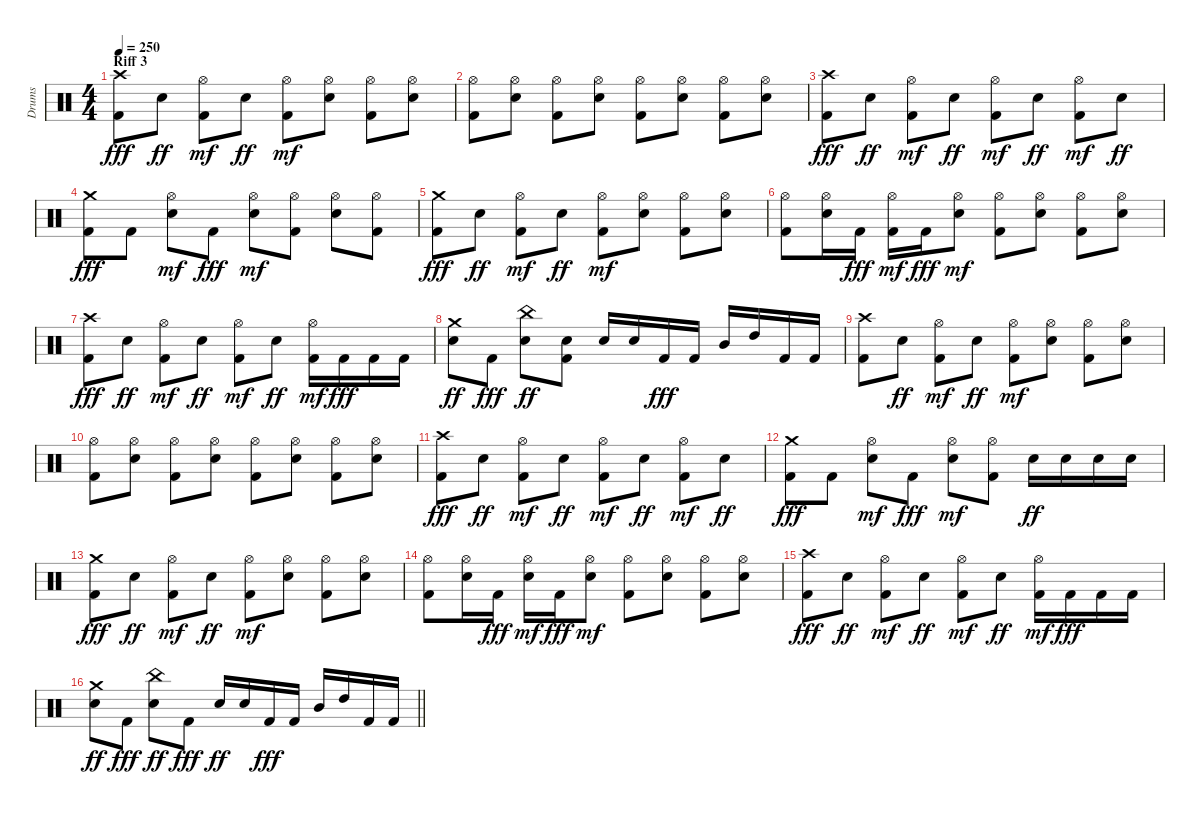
\track ("Drums" "Drums") {instrument percussion}
\staff {score}
\articulation defaults
\ts (4 4)
\section ("" "Riff 3")
\tempo 250
\clef neutral
\ks c
("Kick (hit) 2" "Crash high (hit)").8{dy fff} "Snare (hit) 2".8{dy ff} ("Kick (hit) 2" "Hi-Hat (open)").8{dy mf} "Snare (hit) 2".8{dy ff} ("Kick (hit) 2" "Hi-Hat (open)").8{dy mf} ("Snare (hit) 2" "Hi-Hat (open)").8 ("Kick (hit) 2" "Hi-Hat (open)").8 ("Snare (hit) 2" "Hi-Hat (open)").8 |
("Kick (hit) 2" "Hi-Hat (open)").8 ("Snare (hit) 2" "Hi-Hat (open)").8 ("Kick (hit) 2" "Hi-Hat (open)").8 ("Snare (hit) 2" "Hi-Hat (open)").8 ("Kick (hit) 2" "Hi-Hat (open)").8 ("Snare (hit) 2" "Hi-Hat (open)").8 ("Kick (hit) 2" "Hi-Hat (open)").8 ("Snare (hit) 2" "Hi-Hat (open)").8 |
("Kick (hit) 2" "Crash high (hit)").8{dy fff} "Snare (hit) 2".8{dy ff} ("Kick (hit) 2" "Hi-Hat (open)").8{dy mf} "Snare (hit) 2".8{dy ff} ("Kick (hit) 2" "Hi-Hat (open)").8{dy mf} "Snare (hit) 2".8{dy ff} ("Kick (hit) 2" "Hi-Hat (open)").8{dy mf} "Snare (hit) 2".8{dy ff} |
("Kick (hit) 2" "Crash medium (hit)").8{dy fff} "Kick (hit) 2".8 ("Snare (hit) 2" "Hi-Hat (open)").8{dy mf} "Kick (hit) 2".8{dy fff} ("Snare (hit) 2" "Hi-Hat (open)").8{dy mf} ("Kick (hit) 2" "Hi-Hat (open)").8 ("Snare (hit) 2" "Hi-Hat (open)").8 ("Kick (hit) 2" "Hi-Hat (open)").8 |
("Kick (hit) 2" "Crash medium (hit)").8{dy fff} "Snare (hit) 2".8{dy ff} ("Kick (hit) 2" "Hi-Hat (open)").8{dy mf} "Snare (hit) 2".8{dy ff} ("Kick (hit) 2" "Hi-Hat (open)").8{dy mf} ("Snare (hit) 2" "Hi-Hat (open)").8 ("Kick (hit) 2" "Hi-Hat (open)").8 ("Snare (hit) 2" "Hi-Hat (open)").8 |
("Kick (hit) 2" "Hi-Hat (open)").8 ("Snare (hit) 2" "Hi-Hat (open)").16 "Kick (hit) 2".16{dy fff} ("Kick (hit) 2" "Hi-Hat (open)").16{dy mf} "Kick (hit) 2".16{dy fff} ("Snare (hit) 2" "Hi-Hat (open)").8{dy mf} ("Kick (hit) 2" "Hi-Hat (open)").8 ("Snare (hit) 2" "Hi-Hat (open)").8 ("Kick (hit) 2" "Hi-Hat (open)").8 ("Snare (hit) 2" "Hi-Hat (open)").8 |
("Kick (hit) 2" "Crash high (hit)").8{dy fff} "Snare (hit) 2".8{dy ff} ("Kick (hit) 2" "Hi-Hat (open)").8{dy mf} "Snare (hit) 2".8{dy ff} ("Kick (hit) 2" "Hi-Hat (open)").8{dy mf} "Snare (hit) 2".8{dy ff} ("Kick (hit) 2" "Hi-Hat (open)").16{dy mf} "Kick (hit) 2".16{dy fff} "Kick (hit) 2".16 "Kick (hit) 2".16 |
("Snare (hit) 2" "Crash medium (hit)").8{dy ff} "Kick (hit) 2".8{dy fff} ("Snare (hit) 2" "China (hit)").8{dy ff} ("Kick (hit) 2" "Snare (hit) 2").8 "Snare (hit) 2".16 "Snare (hit) 2".16 "Kick (hit) 2".16{dy fff} "Kick (hit) 2".16 "Mid Tom (hit)".16 "High Tom (hit)".16 "Kick (hit) 2".16 "Kick (hit) 2".16 |
("Kick (hit) 2" "Crash high (hit)").8 "Snare (hit) 2".8{dy ff} ("Kick (hit) 2" "Hi-Hat (open)").8{dy mf} "Snare (hit) 2".8{dy ff} ("Kick (hit) 2" "Hi-Hat (open)").8{dy mf} ("Snare (hit) 2" "Hi-Hat (open)").8 ("Kick (hit) 2" "Hi-Hat (open)").8 ("Snare (hit) 2" "Hi-Hat (open)").8 |
("Kick (hit) 2" "Hi-Hat (open)").8 ("Snare (hit) 2" "Hi-Hat (open)").8 ("Kick (hit) 2" "Hi-Hat (open)").8 ("Snare (hit) 2" "Hi-Hat (open)").8 ("Kick (hit) 2" "Hi-Hat (open)").8 ("Snare (hit) 2" "Hi-Hat (open)").8 ("Kick (hit) 2" "Hi-Hat (open)").8 ("Snare (hit) 2" "Hi-Hat (open)").8 |
("Kick (hit) 2" "Crash high (hit)").8{dy fff} "Snare (hit) 2".8{dy ff} ("Kick (hit) 2" "Hi-Hat (open)").8{dy mf} "Snare (hit) 2".8{dy ff} ("Kick (hit) 2" "Hi-Hat (open)").8{dy mf} "Snare (hit) 2".8{dy ff} ("Kick (hit) 2" "Hi-Hat (open)").8{dy mf} "Snare (hit) 2".8{dy ff} |
("Kick (hit) 2" "Crash medium (hit)").8{dy fff} "Kick (hit) 2".8 ("Snare (hit) 2" "Hi-Hat (open)").8{dy mf} "Kick (hit) 2".8{dy fff} ("Snare (hit) 2" "Hi-Hat (open)").8{dy mf} ("Kick (hit) 2" "Hi-Hat (open)").8 "Snare (hit) 2".16{dy ff} "Snare (hit) 2".16 "Snare (hit) 2".16 "Snare (hit) 2".16 |
("Kick (hit) 2" "Crash medium (hit)").8{dy fff} "Snare (hit) 2".8{dy ff} ("Kick (hit) 2" "Hi-Hat (open)").8{dy mf} "Snare (hit) 2".8{dy ff} ("Kick (hit) 2" "Hi-Hat (open)").8{dy mf} ("Snare (hit) 2" "Hi-Hat (open)").8 ("Kick (hit) 2" "Hi-Hat (open)").8 ("Snare (hit) 2" "Hi-Hat (open)").8 |
("Kick (hit) 2" "Hi-Hat (open)").8 ("Snare (hit) 2" "Hi-Hat (open)").16 "Kick (hit) 2".16{dy fff} ("Snare (hit) 2" "Hi-Hat (open)").16{dy mf} "Kick (hit) 2".16{dy fff} ("Snare (hit) 2" "Hi-Hat (open)").8{dy mf} ("Kick (hit) 2" "Hi-Hat (open)").8 ("Snare (hit) 2" "Hi-Hat (open)").8 ("Kick (hit) 2" "Hi-Hat (open)").8 ("Snare (hit) 2" "Hi-Hat (open)").8 |
("Kick (hit) 2" "Crash high (hit)").8{dy fff} "Snare (hit) 2".8{dy ff} ("Kick (hit) 2" "Hi-Hat (open)").8{dy mf} "Snare (hit) 2".8{dy ff} ("Kick (hit) 2" "Hi-Hat (open)").8{dy mf} "Snare (hit) 2".8{dy ff} ("Kick (hit) 2" "Hi-Hat (open)").16{dy mf} "Kick (hit) 2".16{dy fff} "Kick (hit) 2".16 "Kick (hit) 2".16 |
\barLineRight lightlight
("Snare (hit) 2" "Crash medium (hit)").8{dy ff} "Kick (hit) 2".8{dy fff} ("Snare (hit) 2" "China (hit)").8{dy ff} "Kick (hit) 2".8{dy fff} "Snare (hit) 2".16{dy ff} "Snare (hit) 2".16 "Kick (hit) 2".16{dy fff} "Kick (hit) 2".16 "Mid Tom (hit)".16 "High Tom (hit)".16 "Kick (hit) 2".16 "Kick (hit) 2".16
